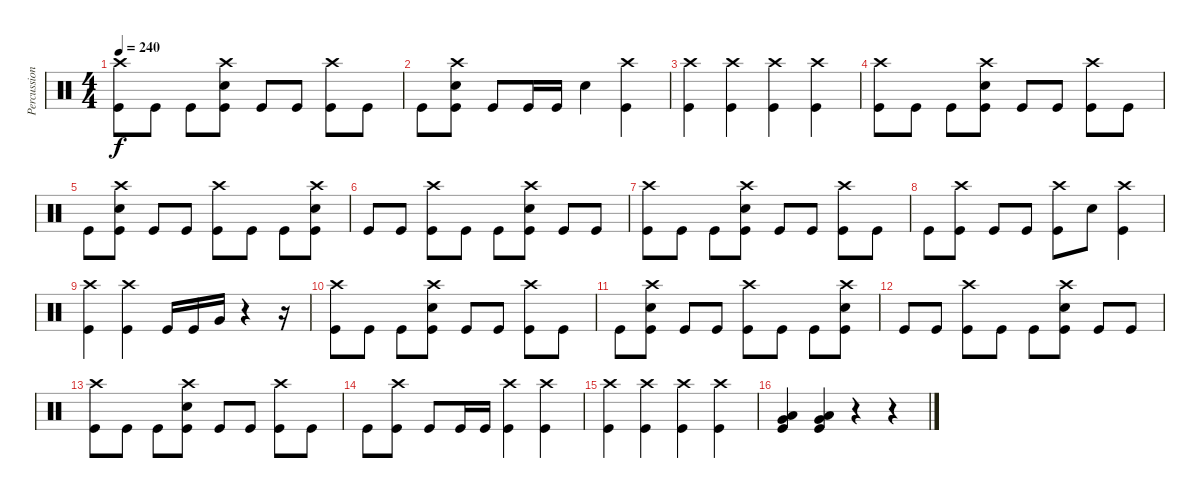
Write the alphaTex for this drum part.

\track ("Percussion" "Percussion") {instrument percussion}
\staff {score}
\articulation defaults
\ts (4 4)
\tempo 240
\clef neutral
\ks c
("Crash high (hit)" "Kick (hit)").8{dy f} "Kick (hit)".8 "Kick (hit)".8 ("Crash high (hit)" "Electric Snare (hit)" "Kick (hit)").8 "Kick (hit)".8 "Kick (hit)".8 ("Crash high (hit)" "Kick (hit)").8 "Kick (hit)".8 |
"Kick (hit)".8 ("Crash high (hit)" "Electric Snare (hit)" "Kick (hit)").8 "Kick (hit)".8 "Kick (hit)".16 "Kick (hit)".16 "Electric Snare (hit)".4 ("Crash high (hit)" "Kick (hit)").4 |
("Crash high (hit)" "Kick (hit)").4 ("Crash high (hit)" "Kick (hit)").4 ("Crash high (hit)" "Kick (hit)").4 ("Crash high (hit)" "Kick (hit)").4 |
("Crash high (hit)" "Kick (hit)").8 "Kick (hit)".8 "Kick (hit)".8 ("Crash high (hit)" "Electric Snare (hit)" "Kick (hit)").8 "Kick (hit)".8 "Kick (hit)".8 ("Crash high (hit)" "Kick (hit)").8 "Kick (hit)".8 |
"Kick (hit)".8 ("Crash high (hit)" "Electric Snare (hit)" "Kick (hit)").8 "Kick (hit)".8 "Kick (hit)".8 ("Crash high (hit)" "Kick (hit)").8 "Kick (hit)".8 "Kick (hit)".8 ("Crash high (hit)" "Electric Snare (hit)" "Kick (hit)").8 |
"Kick (hit)".8 "Kick (hit)".8 ("Crash high (hit)" "Kick (hit)").8 "Kick (hit)".8 "Kick (hit)".8 ("Crash high (hit)" "Electric Snare (hit)" "Kick (hit)").8 "Kick (hit)".8 "Kick (hit)".8 |
("Crash high (hit)" "Kick (hit)").8 "Kick (hit)".8 "Kick (hit)".8 ("Crash high (hit)" "Electric Snare (hit)" "Kick (hit)").8 "Kick (hit)".8 "Kick (hit)".8 ("Crash high (hit)" "Kick (hit)").8 "Kick (hit)".8 |
"Kick (hit)".8 ("Crash high (hit)" "Kick (hit)").8 "Kick (hit)".8 "Kick (hit)".8 ("Crash high (hit)" "Kick (hit)").8 "Electric Snare (hit)".8 ("Crash high (hit)" "Kick (hit)").4 |
("Crash high (hit)" "Kick (hit)").4 ("Crash high (hit)" "Kick (hit)").4 "Kick (hit)".16 "Kick (hit)".16 "Very Low Tom (hit)".16 r.4 r.16 |
("Crash high (hit)" "Kick (hit)").8 "Kick (hit)".8 "Kick (hit)".8 ("Crash high (hit)" "Electric Snare (hit)" "Kick (hit)").8 "Kick (hit)".8 "Kick (hit)".8 ("Crash high (hit)" "Kick (hit)").8 "Kick (hit)".8 |
"Kick (hit)".8 ("Crash high (hit)" "Electric Snare (hit)" "Kick (hit)").8 "Kick (hit)".8 "Kick (hit)".8 ("Crash high (hit)" "Kick (hit)").8 "Kick (hit)".8 "Kick (hit)".8 ("Crash high (hit)" "Electric Snare (hit)" "Kick (hit)").8 |
"Kick (hit)".8 "Kick (hit)".8 ("Crash high (hit)" "Kick (hit)").8 "Kick (hit)".8 "Kick (hit)".8 ("Crash high (hit)" "Electric Snare (hit)" "Kick (hit)").8 "Kick (hit)".8 "Kick (hit)".8 |
("Crash high (hit)" "Kick (hit)").8 "Kick (hit)".8 "Kick (hit)".8 ("Crash high (hit)" "Electric Snare (hit)" "Kick (hit)").8 "Kick (hit)".8 "Kick (hit)".8 ("Crash high (hit)" "Kick (hit)").8 "Kick (hit)".8 |
"Kick (hit)".8 ("Crash high (hit)" "Kick (hit)").8 "Kick (hit)".8 "Kick (hit)".16 "Kick (hit)".16 ("Crash high (hit)" "Kick (hit)").4 ("Crash high (hit)" "Kick (hit)").4 |
("Crash high (hit)" "Kick (hit)").4 ("Crash high (hit)" "Kick (hit)").4 ("Crash high (hit)" "Kick (hit)").4 ("Crash high (hit)" "Kick (hit)").4 |
("Very Low Tom (hit)" "Low Floor Tom (hit)" "Kick (hit)").4 ("Very Low Tom (hit)" "Low Floor Tom (hit)" "Kick (hit)").4 r.4 r.4
